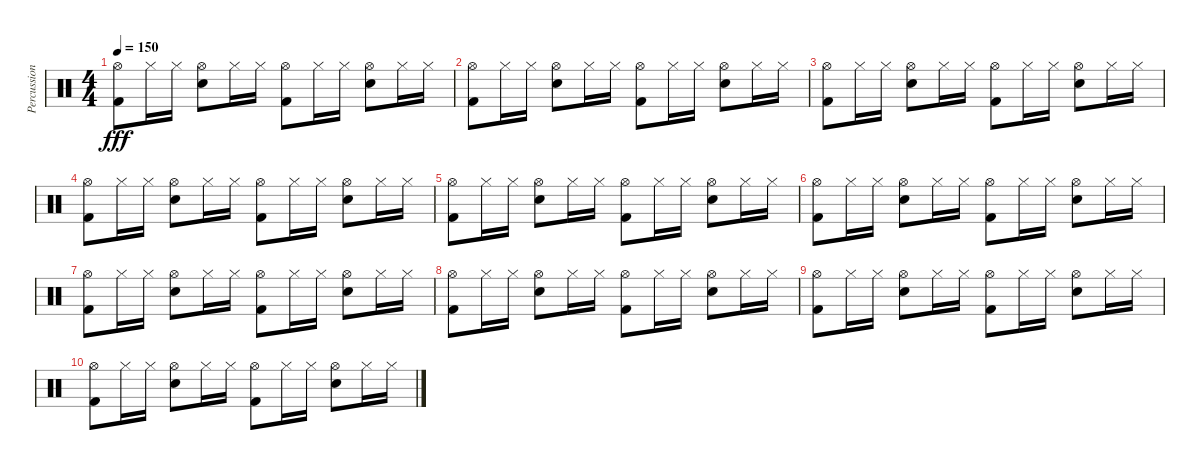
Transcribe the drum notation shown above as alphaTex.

\track ("Percussion" "Percussion") {instrument percussion}
\staff {score}
\articulation defaults
\ts (4 4)
\tempo 150
\clef neutral
\ks c
("Kick (hit) 2" "Hi-Hat (open)").8{dy fff} "Hi-Hat (closed)".16 "Hi-Hat (closed)".16 ("Snare (hit) 2" "Hi-Hat (open)").8 "Hi-Hat (closed)".16 "Hi-Hat (closed)".16 ("Kick (hit) 2" "Hi-Hat (open)").8 "Hi-Hat (closed)".16 "Hi-Hat (closed)".16 ("Snare (hit) 2" "Hi-Hat (open)").8 "Hi-Hat (closed)".16 "Hi-Hat (closed)".16 |
("Kick (hit) 2" "Hi-Hat (open)").8 "Hi-Hat (closed)".16 "Hi-Hat (closed)".16 ("Snare (hit) 2" "Hi-Hat (open)").8 "Hi-Hat (closed)".16 "Hi-Hat (closed)".16 ("Kick (hit) 2" "Hi-Hat (open)").8 "Hi-Hat (closed)".16 "Hi-Hat (closed)".16 ("Snare (hit) 2" "Hi-Hat (open)").8 "Hi-Hat (closed)".16 "Hi-Hat (closed)".16 |
("Kick (hit) 2" "Hi-Hat (open)").8 "Hi-Hat (closed)".16 "Hi-Hat (closed)".16 ("Snare (hit) 2" "Hi-Hat (open)").8 "Hi-Hat (closed)".16 "Hi-Hat (closed)".16 ("Kick (hit) 2" "Hi-Hat (open)").8 "Hi-Hat (closed)".16 "Hi-Hat (closed)".16 ("Snare (hit) 2" "Hi-Hat (open)").8 "Hi-Hat (closed)".16 "Hi-Hat (closed)".16 |
("Kick (hit) 2" "Hi-Hat (open)").8 "Hi-Hat (closed)".16 "Hi-Hat (closed)".16 ("Snare (hit) 2" "Hi-Hat (open)").8 "Hi-Hat (closed)".16 "Hi-Hat (closed)".16 ("Kick (hit) 2" "Hi-Hat (open)").8 "Hi-Hat (closed)".16 "Hi-Hat (closed)".16 ("Snare (hit) 2" "Hi-Hat (open)").8 "Hi-Hat (closed)".16 "Hi-Hat (closed)".16 |
("Kick (hit) 2" "Hi-Hat (open)").8 "Hi-Hat (closed)".16 "Hi-Hat (closed)".16 ("Snare (hit) 2" "Hi-Hat (open)").8 "Hi-Hat (closed)".16 "Hi-Hat (closed)".16 ("Kick (hit) 2" "Hi-Hat (open)").8 "Hi-Hat (closed)".16 "Hi-Hat (closed)".16 ("Snare (hit) 2" "Hi-Hat (open)").8 "Hi-Hat (closed)".16 "Hi-Hat (closed)".16 |
("Kick (hit) 2" "Hi-Hat (open)").8 "Hi-Hat (closed)".16 "Hi-Hat (closed)".16 ("Snare (hit) 2" "Hi-Hat (open)").8 "Hi-Hat (closed)".16 "Hi-Hat (closed)".16 ("Kick (hit) 2" "Hi-Hat (open)").8 "Hi-Hat (closed)".16 "Hi-Hat (closed)".16 ("Snare (hit) 2" "Hi-Hat (open)").8 "Hi-Hat (closed)".16 "Hi-Hat (closed)".16 |
("Kick (hit) 2" "Hi-Hat (open)").8 "Hi-Hat (closed)".16 "Hi-Hat (closed)".16 ("Snare (hit) 2" "Hi-Hat (open)").8 "Hi-Hat (closed)".16 "Hi-Hat (closed)".16 ("Kick (hit) 2" "Hi-Hat (open)").8 "Hi-Hat (closed)".16 "Hi-Hat (closed)".16 ("Snare (hit) 2" "Hi-Hat (open)").8 "Hi-Hat (closed)".16 "Hi-Hat (closed)".16 |
("Kick (hit) 2" "Hi-Hat (open)").8 "Hi-Hat (closed)".16 "Hi-Hat (closed)".16 ("Snare (hit) 2" "Hi-Hat (open)").8 "Hi-Hat (closed)".16 "Hi-Hat (closed)".16 ("Kick (hit) 2" "Hi-Hat (open)").8 "Hi-Hat (closed)".16 "Hi-Hat (closed)".16 ("Snare (hit) 2" "Hi-Hat (open)").8 "Hi-Hat (closed)".16 "Hi-Hat (closed)".16 |
("Kick (hit) 2" "Hi-Hat (open)").8 "Hi-Hat (closed)".16 "Hi-Hat (closed)".16 ("Snare (hit) 2" "Hi-Hat (open)").8 "Hi-Hat (closed)".16 "Hi-Hat (closed)".16 ("Kick (hit) 2" "Hi-Hat (open)").8 "Hi-Hat (closed)".16 "Hi-Hat (closed)".16 ("Snare (hit) 2" "Hi-Hat (open)").8 "Hi-Hat (closed)".16 "Hi-Hat (closed)".16 |
("Kick (hit) 2" "Hi-Hat (open)").8 "Hi-Hat (closed)".16 "Hi-Hat (closed)".16 ("Snare (hit) 2" "Hi-Hat (open)").8 "Hi-Hat (closed)".16 "Hi-Hat (closed)".16 ("Kick (hit) 2" "Hi-Hat (open)").8 "Hi-Hat (closed)".16 "Hi-Hat (closed)".16 ("Snare (hit) 2" "Hi-Hat (open)").8 "Hi-Hat (closed)".16 "Hi-Hat (closed)".16
